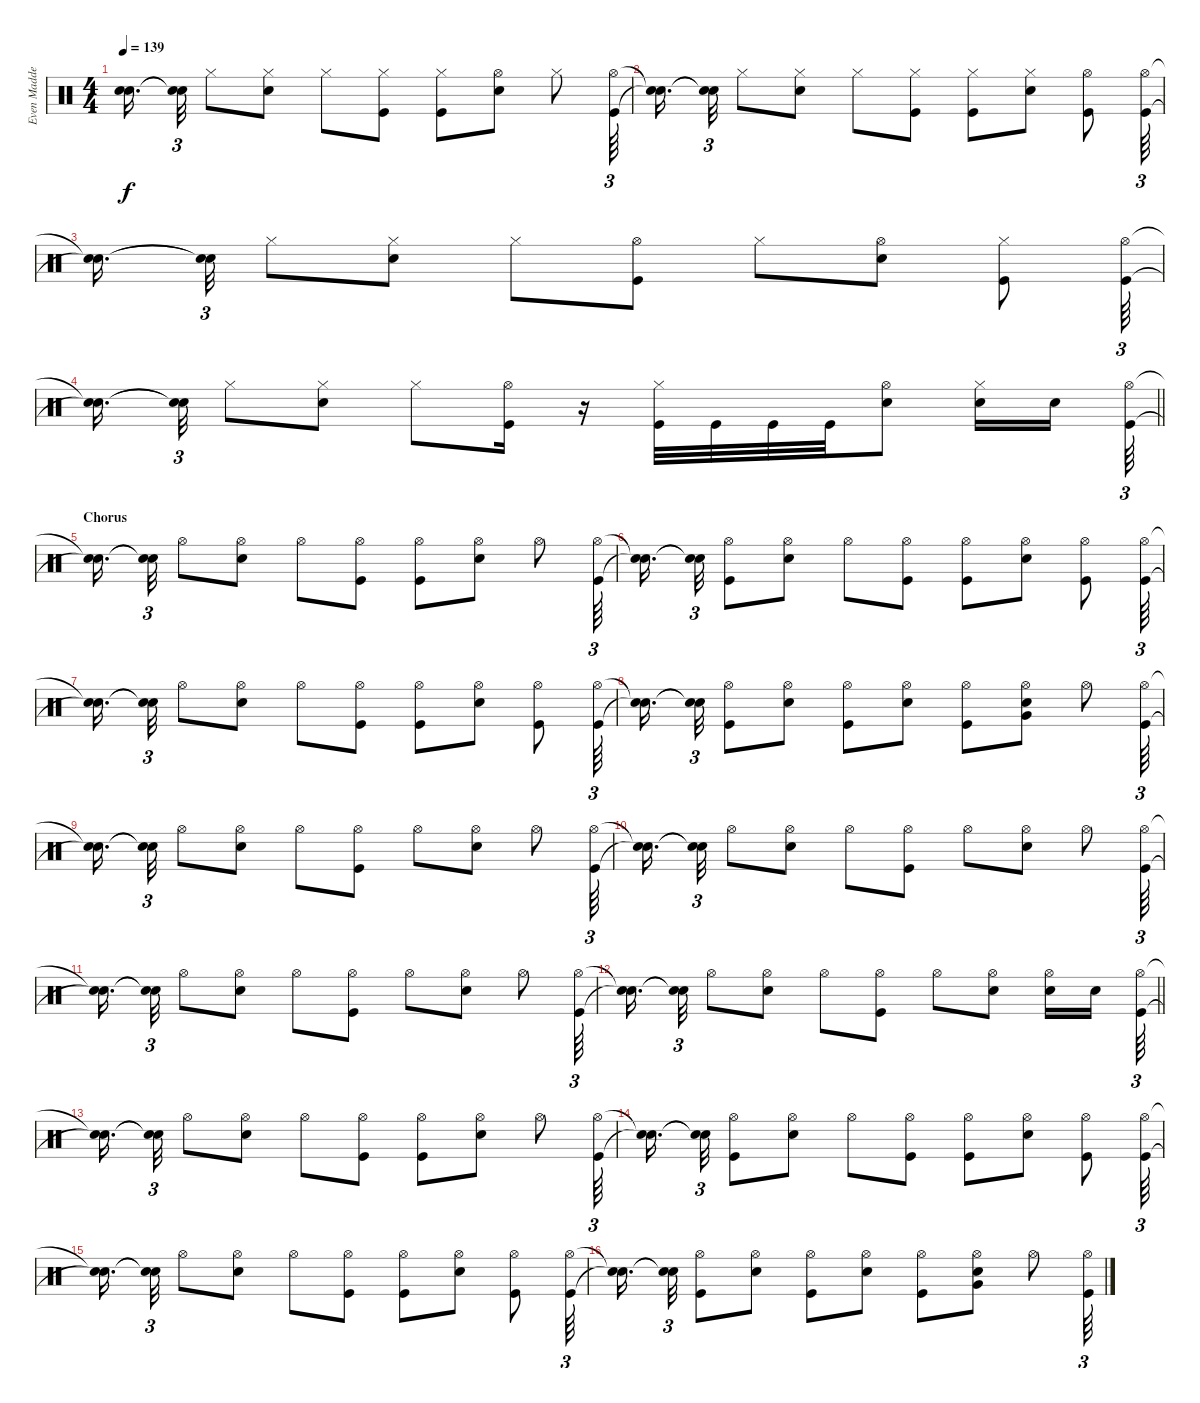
\track ("Even Madden - Drums" "Even Madde") {instrument percussion}
\staff {score}
\articulation defaults
\ts (4 4)
\tempo 139
\clef neutral
\ks c
("Snare (hit)"{t} "Snare (hit)"{t}).16{d dy f beam splitsecondary} ("Snare (hit)"{t} "Snare (hit)"{t}).32{tu (3 2)} "Hi-Hat (closed)".8 ("Hi-Hat (closed)" "Snare (hit) 2").8 "Hi-Hat (closed)".8 ("Hi-Hat (closed)" "Kick (hit)").8 ("Hi-Hat (closed)" "Kick (hit)").8 ("Hi-Hat (open)" "Snare (hit) 2").8 "Hi-Hat (closed)".8 ("Kick (hit)" "Hi-Hat (open)").64{tu (3 2)} |
("Snare (hit)"{t} "Snare (hit)"{t}).16{d beam splitsecondary} ("Snare (hit)"{t} "Snare (hit)"{t}).32{tu (3 2)} "Hi-Hat (closed)".8 ("Hi-Hat (closed)" "Snare (hit) 2").8 "Hi-Hat (closed)".8 ("Hi-Hat (closed)" "Kick (hit)").8 ("Hi-Hat (closed)" "Kick (hit)").8 ("Hi-Hat (closed)" "Snare (hit) 2").8 ("Hi-Hat (open)" "Kick (hit)").8 ("Kick (hit)" "Hi-Hat (open)").64{tu (3 2)} |
("Snare (hit)"{t} "Snare (hit)"{t}).16{d beam splitsecondary} ("Snare (hit)"{t} "Snare (hit)"{t}).32{tu (3 2)} "Hi-Hat (closed)".8 ("Hi-Hat (closed)" "Snare (hit) 2").8 "Hi-Hat (closed)".8 ("Hi-Hat (open)" "Kick (hit)").8 "Hi-Hat (closed)".8 ("Hi-Hat (open)" "Snare (hit) 2").8 ("Hi-Hat (closed)" "Kick (hit)").8 ("Kick (hit)" "Hi-Hat (open)").64{tu (3 2)} |
\barLineRight lightlight
("Snare (hit)"{t} "Snare (hit)"{t}).16{d beam splitsecondary} ("Snare (hit)"{t} "Snare (hit)"{t}).32{tu (3 2)} "Hi-Hat (closed)".8 ("Hi-Hat (closed)" "Snare (hit) 2").8 "Hi-Hat (closed)".8 ("Hi-Hat (open)" "Kick (hit)").16 r.16 ("Hi-Hat (closed)" "Kick (hit)").32 "Kick (hit)".32 "Kick (hit)".32 "Kick (hit)".32 ("Hi-Hat (open)" "Snare (hit) 2").8 ("Hi-Hat (closed)" "Snare (hit) 2").16 "Snare (hit) 2".16{beam splitsecondary} ("Kick (hit)" "Hi-Hat (open)").64{tu (3 2)} |
\section ("" "Chorus")
("Snare (hit)"{t} "Snare (hit)"{t}).16{d beam splitsecondary} ("Snare (hit)"{t} "Snare (hit)"{t}).32{tu (3 2)} "Hi-Hat (open)".8 ("Hi-Hat (open)" "Snare (hit) 2").8 "Hi-Hat (open)".8 ("Hi-Hat (open)" "Kick (hit)").8 ("Hi-Hat (open)" "Kick (hit)").8 ("Hi-Hat (open)" "Snare (hit) 2").8 "Hi-Hat (open)".8 ("Hi-Hat (open)" "Kick (hit)").64{tu (3 2)} |
("Snare (hit)"{t} "Snare (hit)"{t}).16{d beam splitsecondary} ("Snare (hit)"{t} "Snare (hit)"{t}).32{tu (3 2)} ("Hi-Hat (open)" "Kick (hit)").8 ("Hi-Hat (open)" "Snare (hit) 2").8 "Hi-Hat (open)".8 ("Hi-Hat (open)" "Kick (hit)").8 ("Hi-Hat (open)" "Kick (hit)").8 ("Hi-Hat (open)" "Snare (hit) 2").8 ("Hi-Hat (open)" "Kick (hit)").8 ("Hi-Hat (open)" "Kick (hit)").64{tu (3 2)} |
("Snare (hit)"{t} "Snare (hit)"{t}).16{d beam splitsecondary} ("Snare (hit)"{t} "Snare (hit)"{t}).32{tu (3 2)} "Hi-Hat (open)".8 ("Hi-Hat (open)" "Snare (hit) 2").8 "Hi-Hat (open)".8 ("Hi-Hat (open)" "Kick (hit)").8 ("Hi-Hat (open)" "Kick (hit)").8 ("Hi-Hat (open)" "Snare (hit) 2").8 ("Hi-Hat (open)" "Kick (hit)").8 ("Hi-Hat (open)" "Kick (hit)").64{tu (3 2)} |
("Snare (hit)"{t} "Snare (hit)"{t}).16{d beam splitsecondary} ("Snare (hit)"{t} "Snare (hit)"{t}).32{tu (3 2)} ("Hi-Hat (open)" "Kick (hit)").8 ("Hi-Hat (open)" "Snare (hit) 2").8 ("Hi-Hat (open)" "Kick (hit)").8 ("Hi-Hat (open)" "Snare (hit) 2").8 ("Hi-Hat (open)" "Kick (hit)").8 ("Hi-Hat (open)" "Snare (hit) 2" "Very Low Tom (hit)").8 "Hi-Hat (open)".8 ("Hi-Hat (open)" "Kick (hit)").64{tu (3 2)} |
("Snare (hit)"{t} "Snare (hit)"{t}).16{d beam splitsecondary} ("Snare (hit)"{t} "Snare (hit)"{t}).32{tu (3 2)} "Hi-Hat (open)".8 ("Hi-Hat (open)" "Snare (hit) 2").8 "Hi-Hat (open)".8 ("Hi-Hat (open)" "Kick (hit)").8 "Hi-Hat (open)".8 ("Hi-Hat (open)" "Snare (hit) 2").8 "Hi-Hat (open)".8 ("Hi-Hat (open)" "Kick (hit)").64{tu (3 2)} |
("Snare (hit)"{t} "Snare (hit)"{t}).16{d beam splitsecondary} ("Snare (hit)"{t} "Snare (hit)"{t}).32{tu (3 2)} "Hi-Hat (open)".8 ("Hi-Hat (open)" "Snare (hit) 2").8 "Hi-Hat (open)".8 ("Hi-Hat (open)" "Kick (hit)").8 "Hi-Hat (open)".8 ("Hi-Hat (open)" "Snare (hit) 2").8 "Hi-Hat (open)".8 ("Hi-Hat (open)" "Kick (hit)").64{tu (3 2)} |
("Snare (hit)"{t} "Snare (hit)"{t}).16{d beam splitsecondary} ("Snare (hit)"{t} "Snare (hit)"{t}).32{tu (3 2)} "Hi-Hat (open)".8 ("Hi-Hat (open)" "Snare (hit) 2").8 "Hi-Hat (open)".8 ("Hi-Hat (open)" "Kick (hit)").8 "Hi-Hat (open)".8 ("Hi-Hat (open)" "Snare (hit) 2").8 "Hi-Hat (open)".8 ("Hi-Hat (open)" "Kick (hit)").64{tu (3 2)} |
\barLineRight lightlight
("Snare (hit)"{t} "Snare (hit)"{t}).16{d beam splitsecondary} ("Snare (hit)"{t} "Snare (hit)"{t}).32{tu (3 2)} "Hi-Hat (open)".8 ("Hi-Hat (open)" "Snare (hit) 2").8 "Hi-Hat (open)".8 ("Hi-Hat (open)" "Kick (hit)").8 "Hi-Hat (open)".8 ("Hi-Hat (open)" "Snare (hit) 2").8 ("Hi-Hat (open)" "Snare (hit) 2").16 "Snare (hit) 2".16{beam splitsecondary} ("Hi-Hat (open)" "Kick (hit)").64{tu (3 2)} |
("Snare (hit)"{t} "Snare (hit)"{t}).16{d beam splitsecondary} ("Snare (hit)"{t} "Snare (hit)"{t}).32{tu (3 2)} "Hi-Hat (open)".8 ("Hi-Hat (open)" "Snare (hit) 2").8 "Hi-Hat (open)".8 ("Hi-Hat (open)" "Kick (hit)").8 ("Hi-Hat (open)" "Kick (hit)").8 ("Hi-Hat (open)" "Snare (hit) 2").8 "Hi-Hat (open)".8 ("Hi-Hat (open)" "Kick (hit)").64{tu (3 2)} |
("Snare (hit)"{t} "Snare (hit)"{t}).16{d beam splitsecondary} ("Snare (hit)"{t} "Snare (hit)"{t}).32{tu (3 2)} ("Hi-Hat (open)" "Kick (hit)").8 ("Hi-Hat (open)" "Snare (hit) 2").8 "Hi-Hat (open)".8 ("Hi-Hat (open)" "Kick (hit)").8 ("Hi-Hat (open)" "Kick (hit)").8 ("Hi-Hat (open)" "Snare (hit) 2").8 ("Hi-Hat (open)" "Kick (hit)").8 ("Hi-Hat (open)" "Kick (hit)").64{tu (3 2)} |
("Snare (hit)"{t} "Snare (hit)"{t}).16{d beam splitsecondary} ("Snare (hit)"{t} "Snare (hit)"{t}).32{tu (3 2)} "Hi-Hat (open)".8 ("Hi-Hat (open)" "Snare (hit) 2").8 "Hi-Hat (open)".8 ("Hi-Hat (open)" "Kick (hit)").8 ("Hi-Hat (open)" "Kick (hit)").8 ("Hi-Hat (open)" "Snare (hit) 2").8 ("Hi-Hat (open)" "Kick (hit)").8 ("Hi-Hat (open)" "Kick (hit)").64{tu (3 2)} |
("Snare (hit)"{t} "Snare (hit)"{t}).16{d beam splitsecondary} ("Snare (hit)"{t} "Snare (hit)"{t}).32{tu (3 2)} ("Hi-Hat (open)" "Kick (hit)").8 ("Hi-Hat (open)" "Snare (hit) 2").8 ("Hi-Hat (open)" "Kick (hit)").8 ("Hi-Hat (open)" "Snare (hit) 2").8 ("Hi-Hat (open)" "Kick (hit)").8 ("Hi-Hat (open)" "Snare (hit) 2" "Very Low Tom (hit)").8 "Hi-Hat (open)".8 ("Hi-Hat (open)" "Kick (hit)").64{tu (3 2)}
